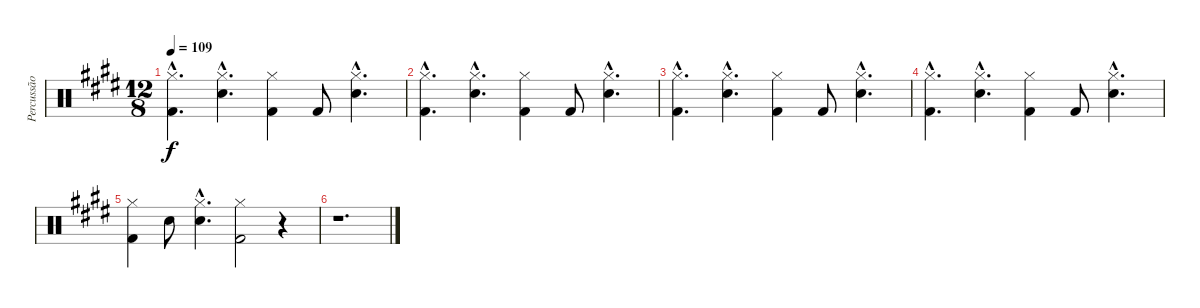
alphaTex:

\track ("Percussão" "Percussão") {instrument percussion}
\staff {score}
\articulation defaults
\ts (12 8)
\tempo 109
\clef neutral
\ks e
("Hi-Hat (closed)"{hac} "Kick (hit) 2"{hac}).4{d dy f} ("Hi-Hat (closed)"{hac} "Electric Snare (hit)"{hac}).4{d} ("Hi-Hat (closed)" "Kick (hit) 2").4 "Kick (hit) 2".8 ("Hi-Hat (closed)"{hac} "Electric Snare (hit)"{hac}).4{d} |
("Hi-Hat (closed)"{hac} "Kick (hit) 2"{hac}).4{d} ("Hi-Hat (closed)"{hac} "Electric Snare (hit)"{hac}).4{d} ("Hi-Hat (closed)" "Kick (hit) 2").4 "Kick (hit) 2".8 ("Hi-Hat (closed)"{hac} "Electric Snare (hit)"{hac}).4{d} |
("Hi-Hat (closed)"{hac} "Kick (hit) 2"{hac}).4{d} ("Hi-Hat (closed)"{hac} "Electric Snare (hit)"{hac}).4{d} ("Hi-Hat (closed)" "Kick (hit) 2").4 "Kick (hit) 2".8 ("Hi-Hat (closed)"{hac} "Electric Snare (hit)"{hac}).4{d} |
("Hi-Hat (closed)"{hac} "Kick (hit) 2"{hac}).4{d} ("Hi-Hat (closed)"{hac} "Electric Snare (hit)"{hac}).4{d} ("Hi-Hat (closed)" "Kick (hit) 2").4 "Kick (hit) 2".8 ("Hi-Hat (closed)"{hac} "Electric Snare (hit)"{hac}).4{d} |
("Hi-Hat (closed)" "Kick (hit) 2").4 "Electric Snare (hit)".8 ("Hi-Hat (closed)"{hac} "Electric Snare (hit)"{hac}).4{d} ("Hi-Hat (closed)" "Kick (hit) 2").2 r.4 |
r.1{d}
